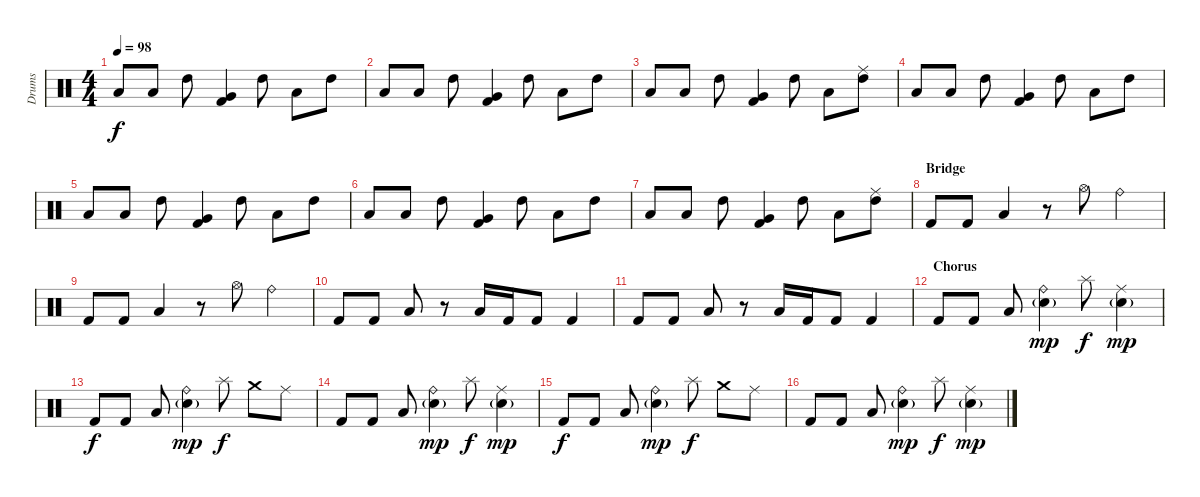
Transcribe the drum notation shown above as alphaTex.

\track ("Drums" "Drums") {instrument percussion}
\staff {score}
\articulation defaults
\ts (4 4)
\tempo 98
\clef neutral
\ks c "Low Tom (hit)".8{dy f} "Low Tom (hit)".8 "High Tom (hit)".8
("Very Low Tom (hit)" "Kick (hit) 2").4 "High Tom (hit)".8 "Low Tom (hit)".8 "High Tom (hit)".8 |
"Low Tom (hit)".8 "Low Tom (hit)".8 "High Tom (hit)".8 ("Very Low Tom (hit)" "Kick (hit) 2").4 "High Tom (hit)".8 "Low Tom (hit)".8 "High Tom (hit)".8 |
"Low Tom (hit)".8 "Low Tom (hit)".8 "High Tom (hit)".8 ("Very Low Tom (hit)" "Kick (hit) 2").4 "High Tom (hit)".8 "Low Tom (hit)".8 ("Ride (middle)" "High Tom (hit)").8 |
"Low Tom (hit)".8 "Low Tom (hit)".8 "High Tom (hit)".8 ("Very Low Tom (hit)" "Kick (hit) 2").4 "High Tom (hit)".8 "Low Tom (hit)".8 "High Tom (hit)".8 |
"Low Tom (hit)".8 "Low Tom (hit)".8 "High Tom (hit)".8 ("Very Low Tom (hit)" "Kick (hit) 2").4 "High Tom (hit)".8 "Low Tom (hit)".8 "High Tom (hit)".8 |
"Low Tom (hit)".8 "Low Tom (hit)".8 "High Tom (hit)".8 ("Very Low Tom (hit)" "Kick (hit) 2").4 "High Tom (hit)".8 "Low Tom (hit)".8 "High Tom (hit)".8 |
"Low Tom (hit)".8 "Low Tom (hit)".8 "High Tom (hit)".8 ("Very Low Tom (hit)" "Kick (hit) 2").4 "High Tom (hit)".8 "Low Tom (hit)".8 ("Ride (middle)" "High Tom (hit)").8 |
\section ("" "Bridge")
"Kick (hit) 2".8 "Kick (hit) 2".8 "Low Tom (hit)".4 r.8 "Hi-Hat (open)".8 "Ride (bell)".4 |
"Kick (hit) 2".8 "Kick (hit) 2".8 "Low Tom (hit)".4 r.8 "Hi-Hat (open)".8 "Ride (bell)".4 |
"Kick (hit) 2".8 "Kick (hit) 2".8 "Low Tom (hit)".8 r.8 "Low Tom (hit)".16 "Kick (hit) 2".16 "Kick (hit) 2".8 "Kick (hit) 2".4 |
"Kick (hit) 2".8 "Kick (hit) 2".8 "Low Tom (hit)".8 r.8 "Low Tom (hit)".16 "Kick (hit) 2".16 "Kick (hit) 2".8 "Kick (hit) 2".4 |
\section ("" "Chorus")
"Kick (hit) 2".8 "Kick (hit) 2".8 "Low Tom (hit)".8 ("Ride (bell)" "Snare (hit) 2"{g}).4{dy mp} "Splash (hit)".8{dy f} ("Ride (middle)" "Snare (hit) 2"{g}).4{dy mp} |
"Kick (hit) 2".8{dy f} "Kick (hit) 2".8 "Low Tom (hit)".8 ("Ride (bell)" "Snare (hit) 2"{g}).4{dy mp} "Splash (hit)".8{dy f} "Crash medium (hit)".8 "Ride (middle)".8 |
"Kick (hit) 2".8 "Kick (hit) 2".8 "Low Tom (hit)".8 ("Ride (bell)" "Snare (hit) 2"{g}).4{dy mp} "Splash (hit)".8{dy f} ("Ride (middle)" "Snare (hit) 2"{g}).4{dy mp} |
"Kick (hit) 2".8{dy f} "Kick (hit) 2".8 "Low Tom (hit)".8 ("Ride (bell)" "Snare (hit) 2"{g}).4{dy mp} "Splash (hit)".8{dy f} "Crash medium (hit)".8 "Ride (middle)".8 |
"Kick (hit) 2".8 "Kick (hit) 2".8 "Low Tom (hit)".8 ("Ride (bell)" "Snare (hit) 2"{g}).4{dy mp} "Splash (hit)".8{dy f} ("Ride (middle)" "Snare (hit) 2"{g}).4{dy mp}
